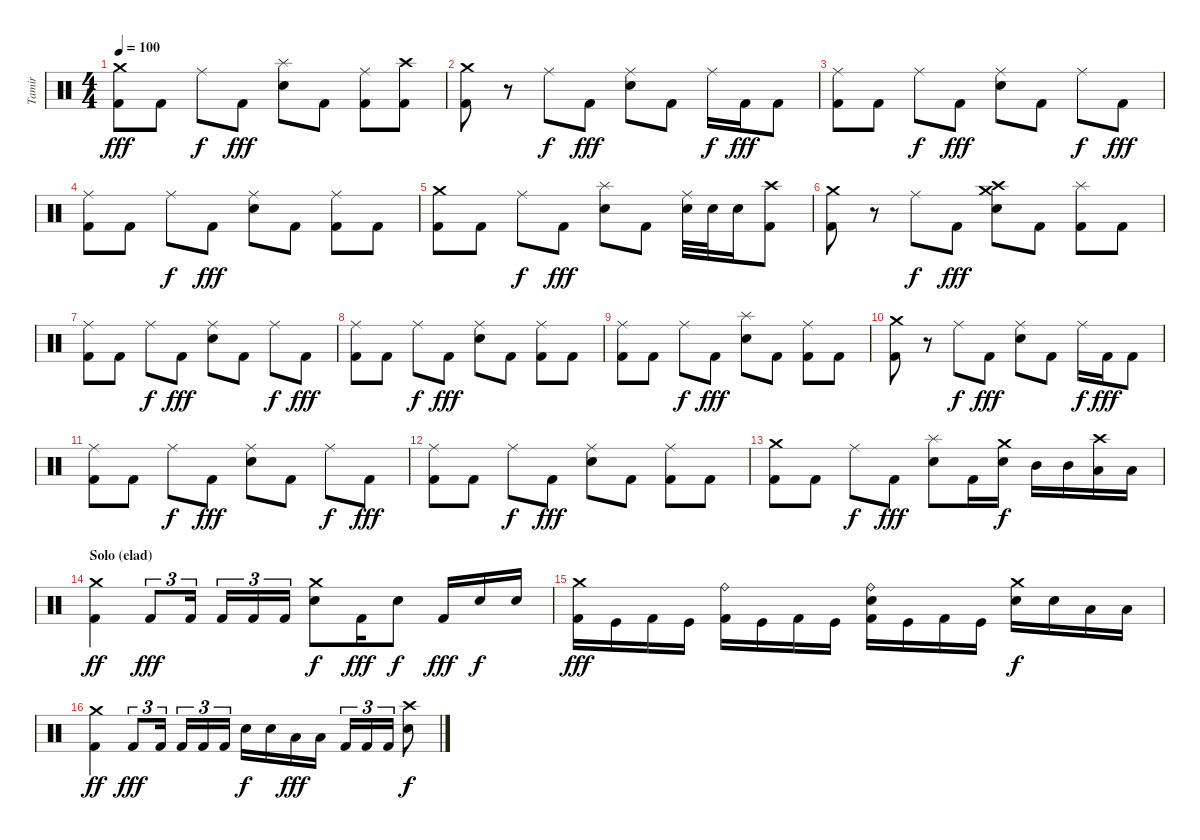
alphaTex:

\track ("Tamir" "Tamir") {instrument percussion}
\staff {score}
\articulation defaults
\ts (4 4)
\tempo 100
\clef neutral
\ks c
("Crash medium (hit)" "Kick (hit) 2").8{dy fff} "Kick (hit) 2".8 "Ride (middle)".8{dy f} "Kick (hit) 2".8{dy fff} ("Splash (hit)" "Electric Snare (hit)").8 "Kick (hit) 2".8 ("Ride (middle)" "Kick (hit) 2").8 ("Crash high (hit)" "Kick (hit) 2").8 |
("Crash medium (hit)" "Kick (hit) 2").8 r.8 "Ride (middle)".8{dy f} "Kick (hit) 2".8{dy fff} ("Ride (middle)" "Electric Snare (hit)").8 "Kick (hit) 2".8 "Ride (middle)".16{dy f} "Kick (hit) 2".16{dy fff} "Kick (hit) 2".8 |
("Ride (middle)" "Kick (hit) 2").8 "Kick (hit) 2".8 "Ride (middle)".8{dy f} "Kick (hit) 2".8{dy fff} ("Ride (middle)" "Electric Snare (hit)").8 "Kick (hit) 2".8 "Ride (middle)".8{dy f} "Kick (hit) 2".8{dy fff} |
("Ride (middle)" "Kick (hit) 2").8 "Kick (hit) 2".8 "Ride (middle)".8{dy f} "Kick (hit) 2".8{dy fff} ("Ride (middle)" "Electric Snare (hit)").8 "Kick (hit) 2".8 ("Ride (middle)" "Kick (hit) 2").8 "Kick (hit) 2".8 |
("Crash medium (hit)" "Kick (hit) 2").8 "Kick (hit) 2".8 "Ride (middle)".8{dy f} "Kick (hit) 2".8{dy fff} ("Splash (hit)" "Electric Snare (hit)").8 "Kick (hit) 2".8 ("Ride (middle)" "Electric Snare (hit)").32 "Electric Snare (hit)".32 "Electric Snare (hit)".16 ("Crash high (hit)" "Kick (hit) 2").8 |
("Crash medium (hit)" "Kick (hit) 2").8 r.8 "Ride (middle)".8{dy f} "Kick (hit) 2".8{dy fff} ("Crash medium (hit)" "Crash high (hit)" "Electric Snare (hit)").8 "Kick (hit) 2".8 ("Splash (hit)" "Kick (hit) 2").8 "Kick (hit) 2".8 |
("Ride (middle)" "Kick (hit) 2").8 "Kick (hit) 2".8 "Ride (middle)".8{dy f} "Kick (hit) 2".8{dy fff} ("Ride (middle)" "Electric Snare (hit)").8 "Kick (hit) 2".8 "Ride (middle)".8{dy f} "Kick (hit) 2".8{dy fff} |
("Ride (middle)" "Kick (hit) 2").8 "Kick (hit) 2".8 "Ride (middle)".8{dy f} "Kick (hit) 2".8{dy fff} ("Ride (middle)" "Electric Snare (hit)").8 "Kick (hit) 2".8 ("Ride (middle)" "Kick (hit) 2").8 "Kick (hit) 2".8 |
("Ride (middle)" "Kick (hit) 2").8 "Kick (hit) 2".8 "Ride (middle)".8{dy f} "Kick (hit) 2".8{dy fff} ("Splash (hit)" "Electric Snare (hit)").8 "Kick (hit) 2".8 ("Ride (middle)" "Kick (hit) 2").8 "Kick (hit) 2".8 |
("Crash medium (hit)" "Kick (hit) 2").8 r.8 "Ride (middle)".8{dy f} "Kick (hit) 2".8{dy fff} ("Ride (middle)" "Electric Snare (hit)").8 "Kick (hit) 2".8 "Ride (middle)".16{dy f} "Kick (hit) 2".16{dy fff} "Kick (hit) 2".8 |
("Ride (middle)" "Kick (hit) 2").8 "Kick (hit) 2".8 "Ride (middle)".8{dy f} "Kick (hit) 2".8{dy fff} ("Ride (middle)" "Electric Snare (hit)").8 "Kick (hit) 2".8 "Ride (middle)".8{dy f} "Kick (hit) 2".8{dy fff} |
("Ride (middle)" "Kick (hit) 2").8 "Kick (hit) 2".8 "Ride (middle)".8{dy f} "Kick (hit) 2".8{dy fff} ("Ride (middle)" "Electric Snare (hit)").8 "Kick (hit) 2".8 ("Ride (middle)" "Kick (hit) 2").8 "Kick (hit) 2".8 |
("Crash medium (hit)" "Kick (hit) 2").8 "Kick (hit) 2".8 "Ride (middle)".8{dy f} "Kick (hit) 2".8{dy fff} ("Splash (hit)" "Electric Snare (hit)").8 "Kick (hit) 2".16 ("Crash medium (hit)" "Electric Snare (hit)").16{dy f} "Mid Tom (hit)".16 "Mid Tom (hit)".16 ("Crash high (hit)" "Low Tom (hit)").16 "Low Tom (hit)".16 |
\section ("" "Solo (elad)")
("Crash medium (hit)" "Kick (hit) 2").4{dy ff} "Kick (hit) 2".8{tu (3 2) dy fff} "Kick (hit) 2".16{tu (3 2)} "Kick (hit) 2".16{tu (3 2)} "Kick (hit) 2".16{tu (3 2)} "Kick (hit) 2".16{tu (3 2)} ("Crash medium (hit)" "Electric Snare (hit)").8{dy f} "Kick (hit) 2".16{dy fff} "Electric Snare (hit)".8{dy f} "Kick (hit) 2".16{dy fff} "Electric Snare (hit)".16{dy f} "Electric Snare (hit)".16 |
("Crash medium (hit)" "Kick (hit) 2").16{dy fff} "Kick (hit)".16 "Kick (hit) 2".16 "Kick (hit)".16 ("Ride (bell)" "Kick (hit) 2").16 "Kick (hit)".16 "Kick (hit) 2".16 "Kick (hit)".16 ("Ride (bell)" "Electric Snare (hit)" "Kick (hit) 2").16 "Kick (hit)".16 "Kick (hit) 2".16 "Kick (hit)".16 ("Crash medium (hit)" "Electric Snare (hit)").16{dy f} "Electric Snare (hit)".16 "Low Tom (hit)".16 "Low Tom (hit)".16 |
("Crash medium (hit)" "Kick (hit) 2").4{dy ff} "Kick (hit) 2".8{tu (3 2) dy fff} "Kick (hit) 2".16{tu (3 2)} "Kick (hit) 2".16{tu (3 2)} "Kick (hit) 2".16{tu (3 2)} "Kick (hit) 2".16{tu (3 2)} "Electric Snare (hit)".16{dy f} "Electric Snare (hit)".16 "Low Tom (hit)".16{dy fff} "Low Tom (hit)".16 "Kick (hit) 2".16{tu (3 2)} "Kick (hit) 2".16{tu (3 2)} "Kick (hit) 2".16{tu (3 2)} ("Crash high (hit)" "Electric Snare (hit)").8{dy f}
